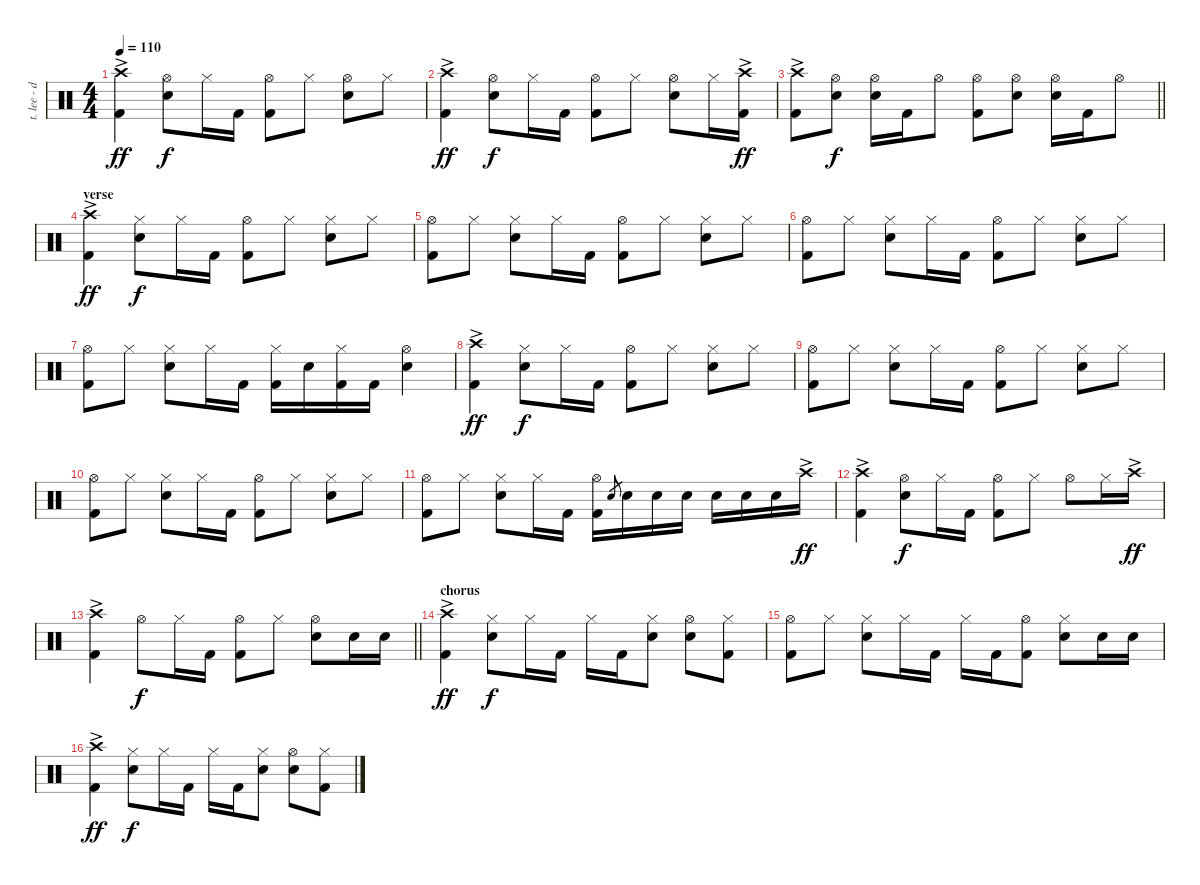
\track ("t. lee - drums" "t. lee - d") {instrument percussion}
\staff {score}
\articulation defaults
\ts (4 4)
\tempo 110
\clef neutral
\ks c
("Crash high (hit)"{ac} "Kick (hit) 2"{ac}).4{dy ff} ("Hi-Hat (open)" "Snare (hit) 2").8{dy f} "Hi-Hat (closed)".16 "Kick (hit) 2".16 ("Hi-Hat (open)" "Kick (hit) 2").8 "Hi-Hat (closed)".8 ("Hi-Hat (open)" "Snare (hit) 2").8 "Hi-Hat (closed)".8 |
("Crash high (hit)"{ac} "Kick (hit) 2"{ac}).4{dy ff} ("Hi-Hat (open)" "Snare (hit) 2").8{dy f} "Hi-Hat (closed)".16 "Kick (hit) 2".16 ("Hi-Hat (open)" "Kick (hit) 2").8 "Hi-Hat (closed)".8 ("Hi-Hat (open)" "Snare (hit) 2").8 "Hi-Hat (closed)".16 ("Crash high (hit)"{ac} "Kick (hit) 2").16{dy ff} |
\barLineRight lightlight
("Crash high (hit)"{ac} "Kick (hit) 2"{ac}).8 ("Hi-Hat (open)" "Snare (hit) 2").8{dy f} ("Hi-Hat (open)" "Snare (hit) 2").16 "Kick (hit) 2".16 "Hi-Hat (open)".8 ("Hi-Hat (open)" "Kick (hit) 2").8 ("Hi-Hat (open)" "Snare (hit) 2").8 ("Hi-Hat (open)" "Snare (hit) 2").16 "Kick (hit) 2".16 "Hi-Hat (open)".8 |
\section ("" "verse")
("Crash high (hit)"{ac} "Kick (hit) 2"{ac}).4{dy ff} ("Hi-Hat (closed)" "Snare (hit) 2").8{dy f} "Hi-Hat (closed)".16 "Kick (hit) 2".16 ("Hi-Hat (open)" "Kick (hit) 2").8 "Hi-Hat (closed)".8 ("Hi-Hat (closed)" "Snare (hit) 2").8 "Hi-Hat (closed)".8 |
("Hi-Hat (open)" "Kick (hit) 2").8 "Hi-Hat (closed)".8 ("Hi-Hat (closed)" "Snare (hit) 2").8 "Hi-Hat (closed)".16 "Kick (hit) 2".16 ("Hi-Hat (open)" "Kick (hit) 2").8 "Hi-Hat (closed)".8 ("Hi-Hat (closed)" "Snare (hit) 2").8 "Hi-Hat (closed)".8 |
("Hi-Hat (open)" "Kick (hit) 2").8 "Hi-Hat (closed)".8 ("Hi-Hat (closed)" "Snare (hit) 2").8 "Hi-Hat (closed)".16 "Kick (hit) 2".16 ("Hi-Hat (open)" "Kick (hit) 2").8 "Hi-Hat (closed)".8 ("Hi-Hat (closed)" "Snare (hit) 2").8 "Hi-Hat (closed)".8 |
("Hi-Hat (open)" "Kick (hit) 2").8 "Hi-Hat (closed)".8 ("Hi-Hat (closed)" "Snare (hit) 2").8 "Hi-Hat (closed)".16 "Kick (hit) 2".16 ("Hi-Hat (closed)" "Kick (hit) 2").16 "Snare (hit) 2".16 ("Hi-Hat (closed)" "Kick (hit) 2").16 "Kick (hit) 2".16 ("Hi-Hat (open)" "Snare (hit) 2").4 |
("Crash high (hit)"{ac} "Kick (hit) 2"{ac}).4{dy ff} ("Hi-Hat (closed)" "Snare (hit) 2").8{dy f} "Hi-Hat (closed)".16 "Kick (hit) 2".16 ("Hi-Hat (open)" "Kick (hit) 2").8 "Hi-Hat (closed)".8 ("Hi-Hat (closed)" "Snare (hit) 2").8 "Hi-Hat (closed)".8 |
("Hi-Hat (open)" "Kick (hit) 2").8 "Hi-Hat (closed)".8 ("Hi-Hat (closed)" "Snare (hit) 2").8 "Hi-Hat (closed)".16 "Kick (hit) 2".16 ("Hi-Hat (open)" "Kick (hit) 2").8 "Hi-Hat (closed)".8 ("Hi-Hat (closed)" "Snare (hit) 2").8 "Hi-Hat (closed)".8 |
("Hi-Hat (open)" "Kick (hit) 2").8 "Hi-Hat (closed)".8 ("Hi-Hat (closed)" "Snare (hit) 2").8 "Hi-Hat (closed)".16 "Kick (hit) 2".16 ("Hi-Hat (open)" "Kick (hit) 2").8 "Hi-Hat (closed)".8 ("Hi-Hat (closed)" "Snare (hit) 2").8 "Hi-Hat (closed)".8 |
("Hi-Hat (open)" "Kick (hit) 2").8 "Hi-Hat (closed)".8 ("Hi-Hat (closed)" "Snare (hit) 2").8 "Hi-Hat (closed)".16 "Kick (hit) 2".16 ("Hi-Hat (open)" "Kick (hit) 2").16 "Snare (hit) 2".8{gr} "Snare (hit) 2".16 "Snare (hit) 2".16 "Snare (hit) 2".16 "Snare (hit) 2".16 "Snare (hit) 2".16 "Snare (hit) 2".16 "Crash high (hit)"{ac}.16{dy ff} |
("Crash high (hit)"{ac} "Kick (hit) 2"{ac}).4 ("Hi-Hat (open)" "Snare (hit) 2").8{dy f} "Hi-Hat (closed)".16 "Kick (hit) 2".16 ("Hi-Hat (open)" "Kick (hit) 2").8 "Hi-Hat (closed)".8 "Hi-Hat (open)".8 "Hi-Hat (closed)".16 "Crash high (hit)"{ac}.16{dy ff} |
\barLineRight lightlight
("Crash high (hit)"{ac} "Kick (hit) 2"{ac}).4 "Hi-Hat (open)".8{dy f} "Hi-Hat (closed)".16 "Kick (hit) 2".16 ("Hi-Hat (open)" "Kick (hit) 2").8 "Hi-Hat (closed)".8 ("Hi-Hat (open)" "Snare (hit) 2").8 "Snare (hit) 2".16 "Snare (hit) 2".16 |
\section ("" "chorus")
("Crash high (hit)"{ac} "Kick (hit) 2"{ac}).4{dy ff} ("Hi-Hat (closed)" "Snare (hit) 2").8{dy f} "Hi-Hat (closed)".16 "Kick (hit) 2".16 "Hi-Hat (closed)".16 "Kick (hit) 2".16 ("Hi-Hat (closed)" "Snare (hit) 2").8 ("Hi-Hat (open)" "Snare (hit) 2").8 ("Hi-Hat (closed)" "Kick (hit) 2").8 |
("Hi-Hat (open)" "Kick (hit) 2").8 "Hi-Hat (closed)".8 ("Hi-Hat (closed)" "Snare (hit) 2").8 "Hi-Hat (closed)".16 "Kick (hit) 2".16 "Hi-Hat (closed)".16 "Kick (hit) 2".16 ("Hi-Hat (open)" "Kick (hit) 2").8 ("Hi-Hat (closed)" "Snare (hit) 2").8 "Snare (hit) 2".16 "Snare (hit) 2".16 |
("Crash high (hit)"{ac} "Kick (hit) 2"{ac}).4{dy ff} ("Hi-Hat (closed)" "Snare (hit) 2").8{dy f} "Hi-Hat (closed)".16 "Kick (hit) 2".16 "Hi-Hat (closed)".16 "Kick (hit) 2".16 ("Hi-Hat (closed)" "Snare (hit) 2").8 ("Hi-Hat (open)" "Snare (hit) 2").8 ("Hi-Hat (closed)" "Kick (hit) 2").8
